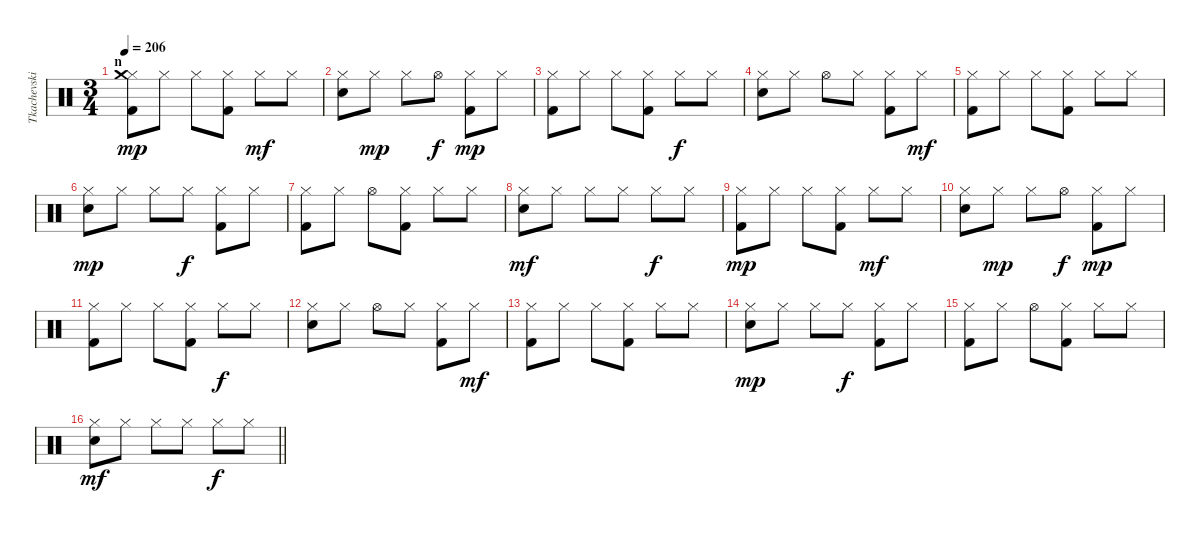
\track ("Tkachevskiy A" "Tkachevski") {instrument percussion}
\staff {score}
\articulation defaults
\ts (3 4)
\section ("" "n")
\tempo 206
\clef neutral
\ks c
("Hi-Hat (closed)" "Crash medium (hit)" "Kick (hit) 2").8{dy mp} "Hi-Hat (closed)".8 "Hi-Hat (closed)".8 ("Hi-Hat (closed)" "Kick (hit) 2").8 "Hi-Hat (closed)".8{dy mf} "Hi-Hat (closed)".8 |
("Hi-Hat (closed)" "Snare (hit) 2").8 "Hi-Hat (closed)".8{dy mp} "Hi-Hat (closed)".8 "Hi-Hat (open)".8{dy f} ("Hi-Hat (closed)" "Kick (hit) 2").8{dy mp} "Hi-Hat (closed)".8 |
("Hi-Hat (closed)" "Kick (hit) 2").8 "Hi-Hat (closed)".8 "Hi-Hat (closed)".8 ("Hi-Hat (closed)" "Kick (hit) 2").8 "Hi-Hat (closed)".8{dy f} "Hi-Hat (closed)".8 |
("Hi-Hat (closed)" "Snare (hit) 2").8 "Hi-Hat (closed)".8 "Hi-Hat (open)".8 "Hi-Hat (closed)".8 ("Hi-Hat (closed)" "Kick (hit) 2").8 "Hi-Hat (closed)".8{dy mf} |
("Hi-Hat (closed)" "Kick (hit) 2").8 "Hi-Hat (closed)".8 "Hi-Hat (closed)".8 ("Hi-Hat (closed)" "Kick (hit) 2").8 "Hi-Hat (closed)".8 "Hi-Hat (closed)".8 |
("Hi-Hat (closed)" "Snare (hit) 2").8{dy mp} "Hi-Hat (closed)".8 "Hi-Hat (closed)".8 "Hi-Hat (closed)".8{dy f} ("Hi-Hat (closed)" "Kick (hit) 2").8 "Hi-Hat (closed)".8 |
("Hi-Hat (closed)" "Kick (hit) 2").8 "Hi-Hat (closed)".8 "Hi-Hat (open)".8 ("Hi-Hat (closed)" "Kick (hit) 2").8 "Hi-Hat (closed)".8 "Hi-Hat (closed)".8 |
("Hi-Hat (closed)" "Snare (hit) 2").8{dy mf} "Hi-Hat (closed)".8 "Hi-Hat (closed)".8 "Hi-Hat (closed)".8 "Hi-Hat (closed)".8{dy f} "Hi-Hat (closed)".8 |
("Hi-Hat (closed)" "Kick (hit) 2").8{dy mp} "Hi-Hat (closed)".8 "Hi-Hat (closed)".8 ("Hi-Hat (closed)" "Kick (hit) 2").8 "Hi-Hat (closed)".8{dy mf} "Hi-Hat (closed)".8 |
("Hi-Hat (closed)" "Snare (hit) 2").8 "Hi-Hat (closed)".8{dy mp} "Hi-Hat (closed)".8 "Hi-Hat (open)".8{dy f} ("Hi-Hat (closed)" "Kick (hit) 2").8{dy mp} "Hi-Hat (closed)".8 |
("Hi-Hat (closed)" "Kick (hit) 2").8 "Hi-Hat (closed)".8 "Hi-Hat (closed)".8 ("Hi-Hat (closed)" "Kick (hit) 2").8 "Hi-Hat (closed)".8{dy f} "Hi-Hat (closed)".8 |
("Hi-Hat (closed)" "Snare (hit) 2").8 "Hi-Hat (closed)".8 "Hi-Hat (open)".8 "Hi-Hat (closed)".8 ("Hi-Hat (closed)" "Kick (hit) 2").8 "Hi-Hat (closed)".8{dy mf} |
("Hi-Hat (closed)" "Kick (hit) 2").8 "Hi-Hat (closed)".8 "Hi-Hat (closed)".8 ("Hi-Hat (closed)" "Kick (hit) 2").8 "Hi-Hat (closed)".8 "Hi-Hat (closed)".8 |
("Hi-Hat (closed)" "Snare (hit) 2").8{dy mp} "Hi-Hat (closed)".8 "Hi-Hat (closed)".8 "Hi-Hat (closed)".8{dy f} ("Hi-Hat (closed)" "Kick (hit) 2").8 "Hi-Hat (closed)".8 |
("Hi-Hat (closed)" "Kick (hit) 2").8 "Hi-Hat (closed)".8 "Hi-Hat (open)".8 ("Hi-Hat (closed)" "Kick (hit) 2").8 "Hi-Hat (closed)".8 "Hi-Hat (closed)".8 |
\barLineRight lightlight
("Hi-Hat (closed)" "Snare (hit) 2").8{dy mf} "Hi-Hat (closed)".8 "Hi-Hat (closed)".8 "Hi-Hat (closed)".8 "Hi-Hat (closed)".8{dy f} "Hi-Hat (closed)".8
